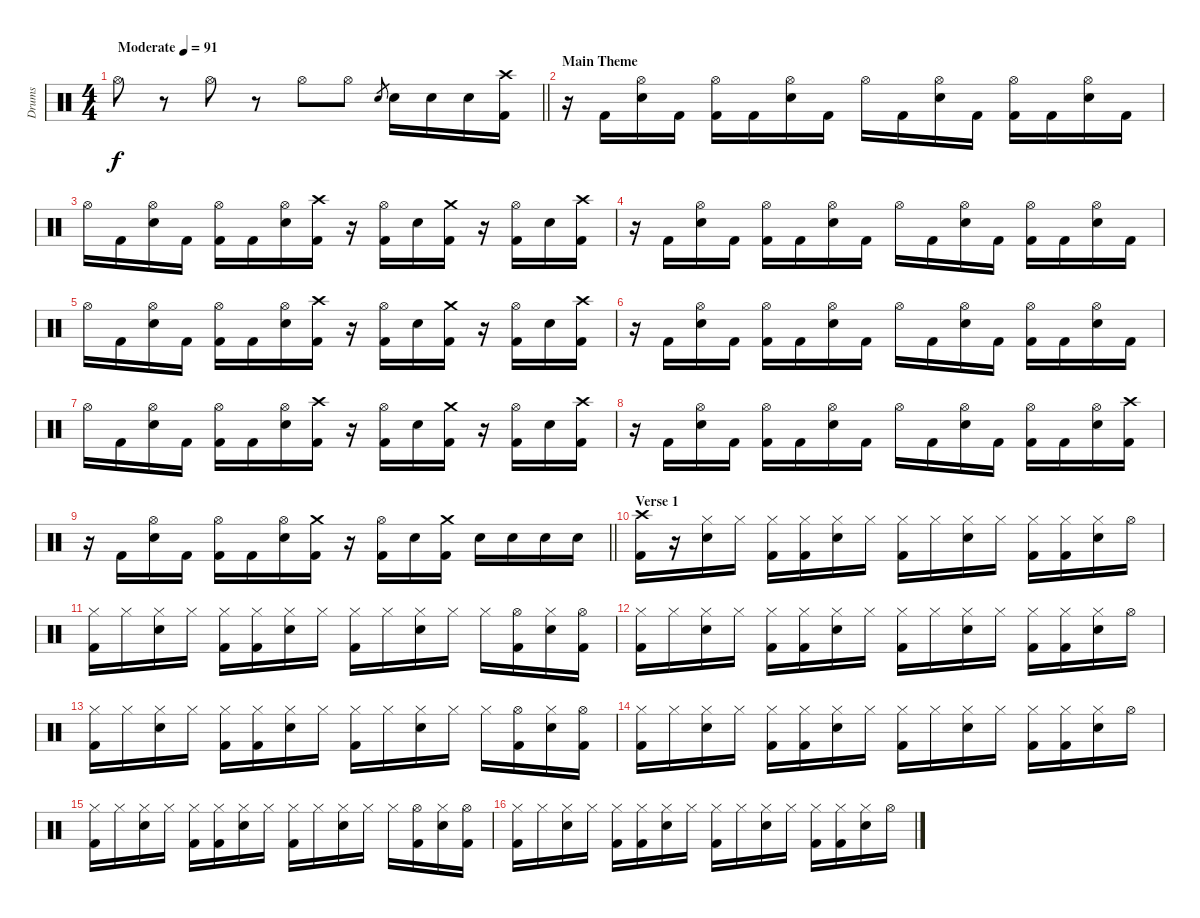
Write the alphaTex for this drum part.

\track ("Drums" "Drums") {instrument percussion}
\staff {score}
\articulation defaults
\ts (4 4)
\tempo (91 "Moderate")
\clef neutral
\barLineRight lightlight
\ks c "Hi-Hat (open)".8{dy f}
r.8 "Hi-Hat (open)".8 r.8 "Hi-Hat (open)".8 "Hi-Hat (open)".8 "Snare (hit) 2".8{gr} "Snare (hit) 2".16 "Snare (hit) 2".16 "Snare (hit) 2".16 ("Crash high (hit)" "Kick (hit) 2").16 |
\section ("" "Main Theme")
r.16 "Kick (hit) 2".16 ("Hi-Hat (open)" "Snare (hit) 2").16 "Kick (hit) 2".16 ("Hi-Hat (open)" "Kick (hit) 2").16 "Kick (hit) 2".16 ("Hi-Hat (open)" "Snare (hit) 2").16 "Kick (hit) 2".16 "Hi-Hat (open)".16 "Kick (hit) 2".16 ("Hi-Hat (open)" "Snare (hit) 2").16 "Kick (hit) 2".16 ("Hi-Hat (open)" "Kick (hit) 2").16 "Kick (hit) 2".16 ("Hi-Hat (open)" "Snare (hit) 2").16 "Kick (hit) 2".16 |
"Hi-Hat (open)".16 "Kick (hit) 2".16 ("Hi-Hat (open)" "Snare (hit) 2").16 "Kick (hit) 2".16 ("Hi-Hat (open)" "Kick (hit) 2").16 "Kick (hit) 2".16 ("Hi-Hat (open)" "Snare (hit) 2").16 ("Crash high (hit)" "Kick (hit) 2").16 r.16 ("Hi-Hat (open)" "Kick (hit) 2").16 "Snare (hit) 2".16 ("Crash medium (hit)" "Kick (hit) 2").16 r.16 ("Hi-Hat (open)" "Kick (hit) 2").16 "Snare (hit) 2".16 ("Crash high (hit)" "Kick (hit) 2").16 |
r.16 "Kick (hit) 2".16 ("Hi-Hat (open)" "Snare (hit) 2").16 "Kick (hit) 2".16 ("Hi-Hat (open)" "Kick (hit) 2").16 "Kick (hit) 2".16 ("Hi-Hat (open)" "Snare (hit) 2").16 "Kick (hit) 2".16 "Hi-Hat (open)".16 "Kick (hit) 2".16 ("Hi-Hat (open)" "Snare (hit) 2").16 "Kick (hit) 2".16 ("Hi-Hat (open)" "Kick (hit) 2").16 "Kick (hit) 2".16 ("Hi-Hat (open)" "Snare (hit) 2").16 "Kick (hit) 2".16 |
"Hi-Hat (open)".16 "Kick (hit) 2".16 ("Hi-Hat (open)" "Snare (hit) 2").16 "Kick (hit) 2".16 ("Hi-Hat (open)" "Kick (hit) 2").16 "Kick (hit) 2".16 ("Hi-Hat (open)" "Snare (hit) 2").16 ("Crash high (hit)" "Kick (hit) 2").16 r.16 ("Hi-Hat (open)" "Kick (hit) 2").16 "Snare (hit) 2".16 ("Crash medium (hit)" "Kick (hit) 2").16 r.16 ("Hi-Hat (open)" "Kick (hit) 2").16 "Snare (hit) 2".16 ("Crash high (hit)" "Kick (hit) 2").16 |
r.16 "Kick (hit) 2".16 ("Hi-Hat (open)" "Snare (hit) 2").16 "Kick (hit) 2".16 ("Hi-Hat (open)" "Kick (hit) 2").16 "Kick (hit) 2".16 ("Hi-Hat (open)" "Snare (hit) 2").16 "Kick (hit) 2".16 "Hi-Hat (open)".16 "Kick (hit) 2".16 ("Hi-Hat (open)" "Snare (hit) 2").16 "Kick (hit) 2".16 ("Hi-Hat (open)" "Kick (hit) 2").16 "Kick (hit) 2".16 ("Hi-Hat (open)" "Snare (hit) 2").16 "Kick (hit) 2".16 |
"Hi-Hat (open)".16 "Kick (hit) 2".16 ("Hi-Hat (open)" "Snare (hit) 2").16 "Kick (hit) 2".16 ("Hi-Hat (open)" "Kick (hit) 2").16 "Kick (hit) 2".16 ("Hi-Hat (open)" "Snare (hit) 2").16 ("Crash high (hit)" "Kick (hit) 2").16 r.16 ("Hi-Hat (open)" "Kick (hit) 2").16 "Snare (hit) 2".16 ("Crash medium (hit)" "Kick (hit) 2").16 r.16 ("Hi-Hat (open)" "Kick (hit) 2").16 "Snare (hit) 2".16 ("Crash high (hit)" "Kick (hit) 2").16 |
r.16 "Kick (hit) 2".16 ("Hi-Hat (open)" "Snare (hit) 2").16 "Kick (hit) 2".16 ("Hi-Hat (open)" "Kick (hit) 2").16 "Kick (hit) 2".16 ("Hi-Hat (open)" "Snare (hit) 2").16 "Kick (hit) 2".16 "Hi-Hat (open)".16 "Kick (hit) 2".16 ("Hi-Hat (open)" "Snare (hit) 2").16 "Kick (hit) 2".16 ("Hi-Hat (open)" "Kick (hit) 2").16 "Kick (hit) 2".16 ("Hi-Hat (open)" "Snare (hit) 2").16 ("Crash high (hit)" "Kick (hit) 2").16 |
\barLineRight lightlight
r.16 "Kick (hit) 2".16 ("Hi-Hat (open)" "Snare (hit) 2").16 "Kick (hit) 2".16 ("Hi-Hat (open)" "Kick (hit) 2").16 "Kick (hit) 2".16 ("Hi-Hat (open)" "Snare (hit) 2").16 ("Crash medium (hit)" "Kick (hit) 2").16 r.16 ("Hi-Hat (open)" "Kick (hit) 2").16 "Snare (hit) 2".16 ("Crash medium (hit)" "Kick (hit) 2").16 "Snare (hit) 2".16 "Snare (hit) 2".16 "Snare (hit) 2".16 "Snare (hit) 2".16 |
\section ("" "Verse 1")
("Crash high (hit)" "Kick (hit) 2").16 r.16 ("Hi-Hat (closed)" "Snare (hit) 2").16 "Hi-Hat (closed)".16 ("Hi-Hat (closed)" "Kick (hit) 2").16 ("Hi-Hat (closed)" "Kick (hit) 2").16 ("Hi-Hat (closed)" "Snare (hit) 2").16 "Hi-Hat (closed)".16 ("Hi-Hat (closed)" "Kick (hit) 2").16 "Hi-Hat (closed)".16 ("Hi-Hat (closed)" "Snare (hit) 2").16 "Hi-Hat (closed)".16 ("Hi-Hat (closed)" "Kick (hit) 2").16 ("Hi-Hat (closed)" "Kick (hit) 2").16 ("Hi-Hat (closed)" "Snare (hit) 2").16 "Hi-Hat (open)".16 |
("Hi-Hat (closed)" "Kick (hit) 2").16 "Hi-Hat (closed)".16 ("Hi-Hat (closed)" "Snare (hit) 2").16 "Hi-Hat (closed)".16 ("Hi-Hat (closed)" "Kick (hit) 2").16 ("Hi-Hat (closed)" "Kick (hit) 2").16 ("Hi-Hat (closed)" "Snare (hit) 2").16 "Hi-Hat (closed)".16 ("Hi-Hat (closed)" "Kick (hit) 2").16 "Hi-Hat (closed)".16 ("Hi-Hat (closed)" "Snare (hit) 2").16 "Hi-Hat (closed)".16 "Hi-Hat (closed)".16 ("Hi-Hat (open)" "Kick (hit) 2").16 ("Hi-Hat (closed)" "Snare (hit) 2").16 ("Hi-Hat (open)" "Kick (hit) 2").16 |
("Hi-Hat (closed)" "Kick (hit) 2").16 "Hi-Hat (closed)".16 ("Hi-Hat (closed)" "Snare (hit) 2").16 "Hi-Hat (closed)".16 ("Hi-Hat (closed)" "Kick (hit) 2").16 ("Hi-Hat (closed)" "Kick (hit) 2").16 ("Hi-Hat (closed)" "Snare (hit) 2").16 "Hi-Hat (closed)".16 ("Hi-Hat (closed)" "Kick (hit) 2").16 "Hi-Hat (closed)".16 ("Hi-Hat (closed)" "Snare (hit) 2").16 "Hi-Hat (closed)".16 ("Hi-Hat (closed)" "Kick (hit) 2").16 ("Hi-Hat (closed)" "Kick (hit) 2").16 ("Hi-Hat (closed)" "Snare (hit) 2").16 "Hi-Hat (open)".16 |
("Hi-Hat (closed)" "Kick (hit) 2").16 "Hi-Hat (closed)".16 ("Hi-Hat (closed)" "Snare (hit) 2").16 "Hi-Hat (closed)".16 ("Hi-Hat (closed)" "Kick (hit) 2").16 ("Hi-Hat (closed)" "Kick (hit) 2").16 ("Hi-Hat (closed)" "Snare (hit) 2").16 "Hi-Hat (closed)".16 ("Hi-Hat (closed)" "Kick (hit) 2").16 "Hi-Hat (closed)".16 ("Hi-Hat (closed)" "Snare (hit) 2").16 "Hi-Hat (closed)".16 "Hi-Hat (closed)".16 ("Hi-Hat (open)" "Kick (hit) 2").16 ("Hi-Hat (closed)" "Snare (hit) 2").16 ("Hi-Hat (open)" "Kick (hit) 2").16 |
("Hi-Hat (closed)" "Kick (hit) 2").16 "Hi-Hat (closed)".16 ("Hi-Hat (closed)" "Snare (hit) 2").16 "Hi-Hat (closed)".16 ("Hi-Hat (closed)" "Kick (hit) 2").16 ("Hi-Hat (closed)" "Kick (hit) 2").16 ("Hi-Hat (closed)" "Snare (hit) 2").16 "Hi-Hat (closed)".16 ("Hi-Hat (closed)" "Kick (hit) 2").16 "Hi-Hat (closed)".16 ("Hi-Hat (closed)" "Snare (hit) 2").16 "Hi-Hat (closed)".16 ("Hi-Hat (closed)" "Kick (hit) 2").16 ("Hi-Hat (closed)" "Kick (hit) 2").16 ("Hi-Hat (closed)" "Snare (hit) 2").16 "Hi-Hat (open)".16 |
("Hi-Hat (closed)" "Kick (hit) 2").16 "Hi-Hat (closed)".16 ("Hi-Hat (closed)" "Snare (hit) 2").16 "Hi-Hat (closed)".16 ("Hi-Hat (closed)" "Kick (hit) 2").16 ("Hi-Hat (closed)" "Kick (hit) 2").16 ("Hi-Hat (closed)" "Snare (hit) 2").16 "Hi-Hat (closed)".16 ("Hi-Hat (closed)" "Kick (hit) 2").16 "Hi-Hat (closed)".16 ("Hi-Hat (closed)" "Snare (hit) 2").16 "Hi-Hat (closed)".16 "Hi-Hat (closed)".16 ("Hi-Hat (open)" "Kick (hit) 2").16 ("Hi-Hat (closed)" "Snare (hit) 2").16 ("Hi-Hat (open)" "Kick (hit) 2").16 |
("Hi-Hat (closed)" "Kick (hit) 2").16 "Hi-Hat (closed)".16 ("Hi-Hat (closed)" "Snare (hit) 2").16 "Hi-Hat (closed)".16 ("Hi-Hat (closed)" "Kick (hit) 2").16 ("Hi-Hat (closed)" "Kick (hit) 2").16 ("Hi-Hat (closed)" "Snare (hit) 2").16 "Hi-Hat (closed)".16 ("Hi-Hat (closed)" "Kick (hit) 2").16 "Hi-Hat (closed)".16 ("Hi-Hat (closed)" "Snare (hit) 2").16 "Hi-Hat (closed)".16 ("Hi-Hat (closed)" "Kick (hit) 2").16 ("Hi-Hat (closed)" "Kick (hit) 2").16 ("Hi-Hat (closed)" "Snare (hit) 2").16 "Hi-Hat (open)".16
